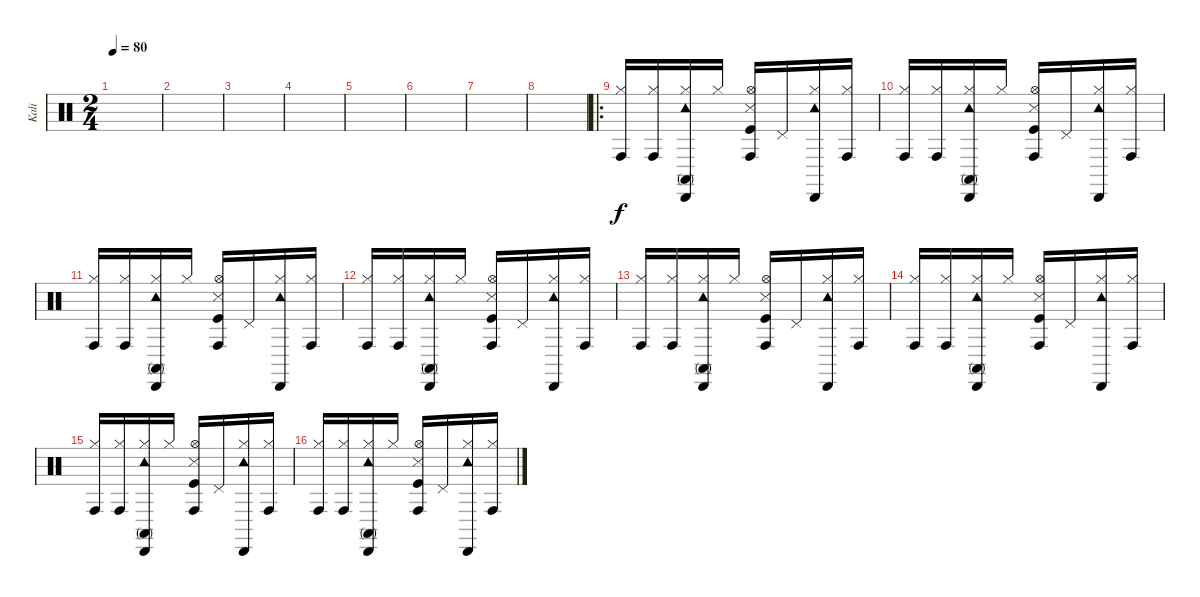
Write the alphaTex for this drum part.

\track ("Kali" "Kali") {instrument percussion}
\staff {score}
\articulation defaults
\ts (2 4)
\tempo 80
\clef neutral
\ks c
|
|
|
|
|
|
|
|
\ro
("Conga high (hit)" "Hi-Hat (closed)").16 ("Conga high (hit)" "Hi-Hat (closed)").16 ("Cabasa (hit)" "Tambourine (hit)" "Conga high (mute)" "Hi-Hat (closed)").16 "Hi-Hat (closed)".16 ("Conga high (hit)" "Hi-Hat (open)" "Snare (side stick) 3" "Kick (hit)").16 "Pedal Hi-Hat (hit)".16 ("Cabasa (hit)" "Tambourine (hit)" "Hi-Hat (closed)").16 ("Conga high (hit)" "Hi-Hat (closed)").16 |
("Conga high (hit)" "Hi-Hat (closed)").16 ("Conga high (hit)" "Hi-Hat (closed)").16 ("Cabasa (hit)" "Tambourine (hit)" "Conga high (mute)" "Hi-Hat (closed)").16 "Hi-Hat (closed)".16 ("Conga high (hit)" "Hi-Hat (open)" "Snare (side stick) 3" "Kick (hit)").16 "Pedal Hi-Hat (hit)".16 ("Cabasa (hit)" "Tambourine (hit)" "Hi-Hat (closed)").16 ("Conga high (hit)" "Hi-Hat (closed)").16 |
("Conga high (hit)" "Hi-Hat (closed)").16 ("Conga high (hit)" "Hi-Hat (closed)").16 ("Cabasa (hit)" "Tambourine (hit)" "Conga high (mute)" "Hi-Hat (closed)").16 "Hi-Hat (closed)".16 ("Conga high (hit)" "Hi-Hat (open)" "Snare (side stick) 3" "Kick (hit)").16 "Pedal Hi-Hat (hit)".16 ("Cabasa (hit)" "Tambourine (hit)" "Hi-Hat (closed)").16 ("Conga high (hit)" "Hi-Hat (closed)").16 |
("Conga high (hit)" "Hi-Hat (closed)").16 ("Conga high (hit)" "Hi-Hat (closed)").16 ("Cabasa (hit)" "Tambourine (hit)" "Conga high (mute)" "Hi-Hat (closed)").16 "Hi-Hat (closed)".16 ("Conga high (hit)" "Hi-Hat (open)" "Snare (side stick) 3" "Kick (hit)").16 "Pedal Hi-Hat (hit)".16 ("Cabasa (hit)" "Tambourine (hit)" "Hi-Hat (closed)").16 ("Conga high (hit)" "Hi-Hat (closed)").16 |
("Conga high (hit)" "Hi-Hat (closed)").16 ("Conga high (hit)" "Hi-Hat (closed)").16 ("Cabasa (hit)" "Tambourine (hit)" "Conga high (mute)" "Hi-Hat (closed)").16 "Hi-Hat (closed)".16 ("Conga high (hit)" "Hi-Hat (open)" "Snare (side stick) 3" "Kick (hit)").16 "Pedal Hi-Hat (hit)".16 ("Cabasa (hit)" "Tambourine (hit)" "Hi-Hat (closed)").16 ("Conga high (hit)" "Hi-Hat (closed)").16 |
("Conga high (hit)" "Hi-Hat (closed)").16 ("Conga high (hit)" "Hi-Hat (closed)").16 ("Cabasa (hit)" "Tambourine (hit)" "Conga high (mute)" "Hi-Hat (closed)").16 "Hi-Hat (closed)".16 ("Conga high (hit)" "Hi-Hat (open)" "Snare (side stick) 3" "Kick (hit)").16 "Pedal Hi-Hat (hit)".16 ("Cabasa (hit)" "Tambourine (hit)" "Hi-Hat (closed)").16 ("Conga high (hit)" "Hi-Hat (closed)").16 |
("Conga high (hit)" "Hi-Hat (closed)").16 ("Conga high (hit)" "Hi-Hat (closed)").16 ("Cabasa (hit)" "Tambourine (hit)" "Conga high (mute)" "Hi-Hat (closed)").16 "Hi-Hat (closed)".16 ("Conga high (hit)" "Hi-Hat (open)" "Snare (side stick) 3" "Kick (hit)").16 "Pedal Hi-Hat (hit)".16 ("Cabasa (hit)" "Tambourine (hit)" "Hi-Hat (closed)").16 ("Conga high (hit)" "Hi-Hat (closed)").16 |
("Conga high (hit)" "Hi-Hat (closed)").16 ("Conga high (hit)" "Hi-Hat (closed)").16 ("Cabasa (hit)" "Tambourine (hit)" "Conga high (mute)" "Hi-Hat (closed)").16 "Hi-Hat (closed)".16 ("Conga high (hit)" "Hi-Hat (open)" "Snare (side stick) 3" "Kick (hit)").16 "Pedal Hi-Hat (hit)".16 ("Cabasa (hit)" "Tambourine (hit)" "Hi-Hat (closed)").16 ("Conga high (hit)" "Hi-Hat (closed)").16
